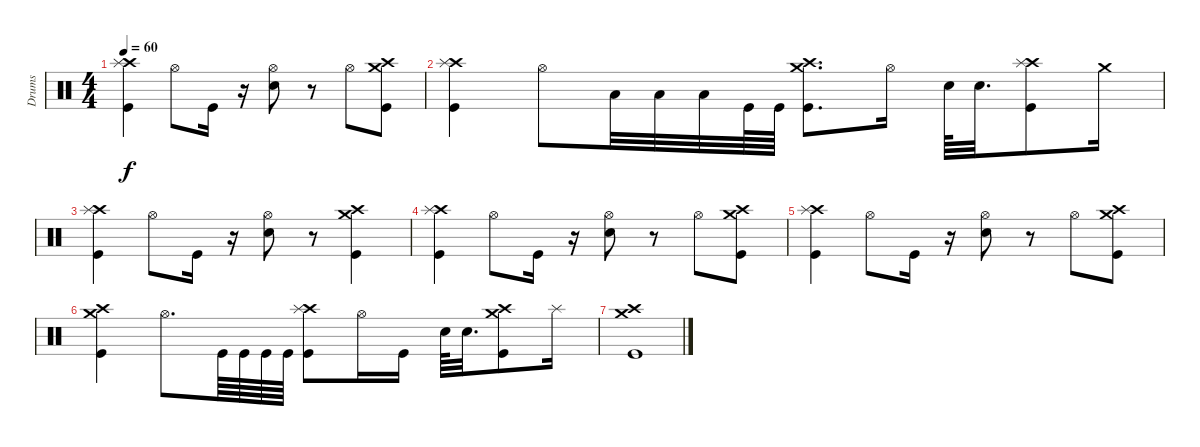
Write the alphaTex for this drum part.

\track ("Drums" "Drums") {instrument percussion}
\staff {score}
\articulation defaults
\ts (4 4)
\tempo 60
\clef neutral
\ks c
("Crash high (hit)" "Splash (hit)" "Kick (hit)").4{dy f} "Hi-Hat (open)".8 "Kick (hit)".16 r.16 ("Hi-Hat (open)" "Electric Snare (hit)").8 r.8 "Hi-Hat (open)".8 ("Crash high (hit)" "Crash medium (hit)" "Kick (hit)").8 |
("Crash high (hit)" "Splash (hit)" "Kick (hit)").4 "Hi-Hat (open)".8 "Low Tom (hit)".32 "Low Tom (hit)".32 "Low Tom (hit)".32 "Kick (hit)".64 "Kick (hit)".64 ("Crash high (hit)" "Crash medium (hit)" "Kick (hit)").8{d} "Hi-Hat (open)".16 "Electric Snare (hit)".64 "Electric Snare (hit)".32{d} ("Crash high (hit)" "Splash (hit)" "Kick (hit)").8 "Crash medium (hit)".16 |
("Crash high (hit)" "Splash (hit)" "Kick (hit)").4 "Hi-Hat (open)".8 "Kick (hit)".16 r.16 ("Hi-Hat (open)" "Electric Snare (hit)").8 r.8 ("Crash high (hit)" "Crash medium (hit)" "Kick (hit)").4 |
("Crash high (hit)" "Splash (hit)" "Kick (hit)").4 "Hi-Hat (open)".8 "Kick (hit)".16 r.16 ("Hi-Hat (open)" "Electric Snare (hit)").8 r.8 "Hi-Hat (open)".8 ("Crash high (hit)" "Crash medium (hit)" "Kick (hit)").8 |
("Crash high (hit)" "Splash (hit)" "Kick (hit)").4 "Hi-Hat (open)".8 "Kick (hit)".16 r.16 ("Hi-Hat (open)" "Electric Snare (hit)").8 r.8 "Hi-Hat (open)".8 ("Crash high (hit)" "Crash medium (hit)" "Kick (hit)").8 |
("Crash high (hit)" "Crash medium (hit)" "Kick (hit)").4 "Hi-Hat (open)".8{d} "Kick (hit)".64 "Kick (hit)".64 "Kick (hit)".64 "Kick (hit)".64 ("Crash high (hit)" "Splash (hit)" "Kick (hit)").8 "Hi-Hat (open)".16 "Kick (hit)".16 "Electric Snare (hit)".64 "Electric Snare (hit)".32{d} ("Crash high (hit)" "Crash medium (hit)" "Kick (hit)").8 "Splash (hit)".16 |
("Crash high (hit)" "Crash medium (hit)" "Kick (hit)").1
